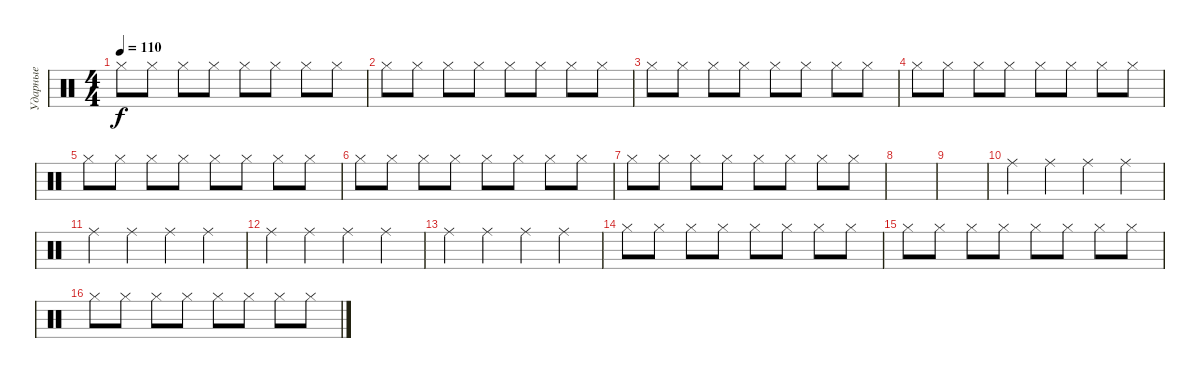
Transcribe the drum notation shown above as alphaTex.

\track ("Ударные" "Ударные") {instrument percussion}
\staff {score}
\articulation defaults
\ts (4 4)
\tempo 110
\clef neutral
\ks c "Hi-Hat (closed)".8{dy f} "Hi-Hat (closed)".8 "Hi-Hat (closed)".8 "Hi-Hat (closed)".8 "Hi-Hat (closed)".8 "Hi-Hat (closed)".8 "Hi-Hat (closed)".8 "Hi-Hat (closed)".8
|
"Hi-Hat (closed)".8 "Hi-Hat (closed)".8 "Hi-Hat (closed)".8 "Hi-Hat (closed)".8 "Hi-Hat (closed)".8 "Hi-Hat (closed)".8 "Hi-Hat (closed)".8 "Hi-Hat (closed)".8 |
"Hi-Hat (closed)".8 "Hi-Hat (closed)".8 "Hi-Hat (closed)".8 "Hi-Hat (closed)".8 "Hi-Hat (closed)".8 "Hi-Hat (closed)".8 "Hi-Hat (closed)".8 "Hi-Hat (closed)".8 |
"Hi-Hat (closed)".8 "Hi-Hat (closed)".8 "Hi-Hat (closed)".8 "Hi-Hat (closed)".8 "Hi-Hat (closed)".8 "Hi-Hat (closed)".8 "Hi-Hat (closed)".8 "Hi-Hat (closed)".8 |
"Hi-Hat (closed)".8 "Hi-Hat (closed)".8 "Hi-Hat (closed)".8 "Hi-Hat (closed)".8 "Hi-Hat (closed)".8 "Hi-Hat (closed)".8 "Hi-Hat (closed)".8 "Hi-Hat (closed)".8 |
"Hi-Hat (closed)".8 "Hi-Hat (closed)".8 "Hi-Hat (closed)".8 "Hi-Hat (closed)".8 "Hi-Hat (closed)".8 "Hi-Hat (closed)".8 "Hi-Hat (closed)".8 "Hi-Hat (closed)".8 |
"Hi-Hat (closed)".8 "Hi-Hat (closed)".8 "Hi-Hat (closed)".8 "Hi-Hat (closed)".8 "Hi-Hat (closed)".8 "Hi-Hat (closed)".8 "Hi-Hat (closed)".8 "Hi-Hat (closed)".8 |
|
|
"Ride (middle)".4 "Ride (middle)".4 "Ride (middle)".4 "Ride (middle)".4 |
"Ride (middle)".4 "Ride (middle)".4 "Ride (middle)".4 "Ride (middle)".4 |
"Ride (middle)".4 "Ride (middle)".4 "Ride (middle)".4 "Ride (middle)".4 |
"Ride (middle)".4 "Ride (middle)".4 "Ride (middle)".4 "Ride (middle)".4 |
"Hi-Hat (closed)".8 "Hi-Hat (closed)".8 "Hi-Hat (closed)".8 "Hi-Hat (closed)".8 "Hi-Hat (closed)".8 "Hi-Hat (closed)".8 "Hi-Hat (closed)".8 "Hi-Hat (closed)".8 |
"Hi-Hat (closed)".8 "Hi-Hat (closed)".8 "Hi-Hat (closed)".8 "Hi-Hat (closed)".8 "Hi-Hat (closed)".8 "Hi-Hat (closed)".8 "Hi-Hat (closed)".8 "Hi-Hat (closed)".8 |
"Hi-Hat (closed)".8 "Hi-Hat (closed)".8 "Hi-Hat (closed)".8 "Hi-Hat (closed)".8 "Hi-Hat (closed)".8 "Hi-Hat (closed)".8 "Hi-Hat (closed)".8 "Hi-Hat (closed)".8
